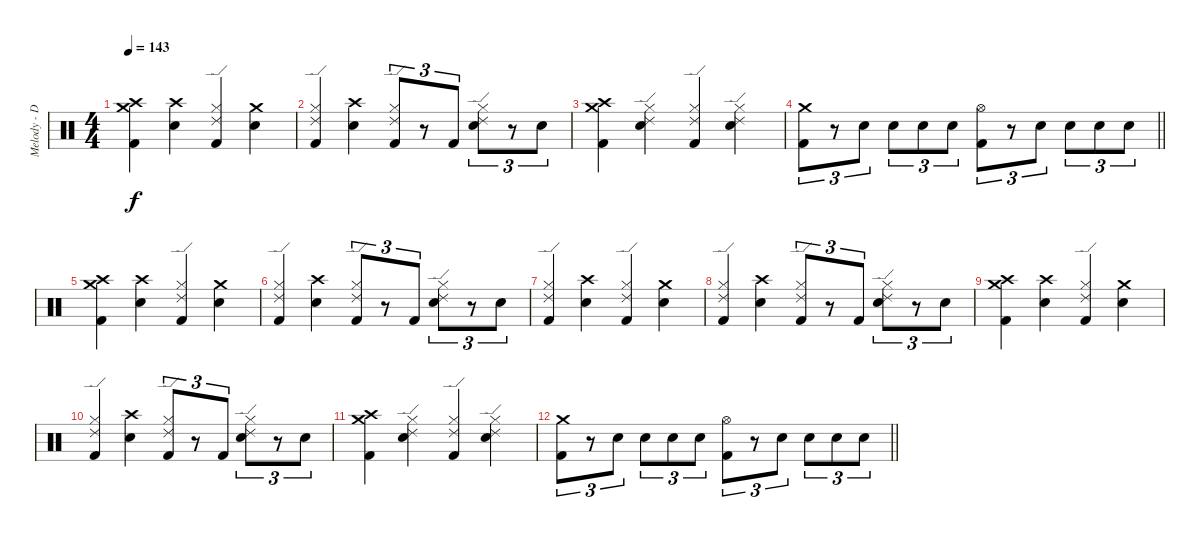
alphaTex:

\track ("Melody - Drums" "Melody - D") {instrument percussion}
\staff {score}
\articulation defaults
\ts (4 4)
\tempo 143
\clef neutral
\ks c
("Crash medium (hit)" "Crash high (hit)" "Kick (hit) 2").4{dy f} ("Crash high (hit)" "Electric Snare (hit)").4 ("Hi-Hat (closed)" "Ride (edge) 2" "Kick (hit) 2").4 ("Crash medium (hit)" "Electric Snare (hit)").4 |
("Hi-Hat (closed)" "Ride (edge) 2" "Kick (hit) 2").4 ("Crash high (hit)" "Electric Snare (hit)").4 ("Hi-Hat (closed)" "Ride (edge) 2" "Kick (hit) 2").8{tu (3 2)} r.8{tu (3 2)} "Kick (hit) 2".8{tu (3 2)} ("Hi-Hat (closed)" "Ride (edge) 2" "Electric Snare (hit)").8{tu (3 2)} r.8{tu (3 2)} "Electric Snare (hit)".8{tu (3 2)} |
("Crash medium (hit)" "Crash high (hit)" "Kick (hit) 2").4 ("Hi-Hat (closed)" "Ride (edge) 2" "Electric Snare (hit)").4 ("Hi-Hat (closed)" "Ride (edge) 2" "Kick (hit) 2").4 ("Hi-Hat (closed)" "Ride (edge) 2" "Electric Snare (hit)").4 |
\barLineRight lightlight
("Crash medium (hit)" "Kick (hit) 2").8{tu (3 2)} r.8{tu (3 2)} "Electric Snare (hit)".8{tu (3 2)} "Electric Snare (hit)".8{tu (3 2)} "Electric Snare (hit)".8{tu (3 2)} "Electric Snare (hit)".8{tu (3 2)} ("Hi-Hat (open)" "Kick (hit) 2").8{tu (3 2)} r.8{tu (3 2)} "Electric Snare (hit)".8{tu (3 2)} "Electric Snare (hit)".8{tu (3 2)} "Electric Snare (hit)".8{tu (3 2)} "Electric Snare (hit)".8{tu (3 2)} |
("Crash medium (hit)" "Crash high (hit)" "Kick (hit) 2").4 ("Crash high (hit)" "Electric Snare (hit)").4 ("Hi-Hat (closed)" "Ride (edge) 2" "Kick (hit) 2").4 ("Crash medium (hit)" "Electric Snare (hit)").4 |
("Hi-Hat (closed)" "Ride (edge) 2" "Kick (hit) 2").4 ("Crash high (hit)" "Electric Snare (hit)").4 ("Hi-Hat (closed)" "Ride (edge) 2" "Kick (hit) 2").8{tu (3 2)} r.8{tu (3 2)} "Kick (hit) 2".8{tu (3 2)} ("Hi-Hat (closed)" "Ride (edge) 2" "Electric Snare (hit)").8{tu (3 2)} r.8{tu (3 2)} "Electric Snare (hit)".8{tu (3 2)} |
("Hi-Hat (closed)" "Ride (edge) 2" "Kick (hit) 2").4{volume 0} ("Crash high (hit)" "Electric Snare (hit)").4 ("Hi-Hat (closed)" "Ride (edge) 2" "Kick (hit) 2").4 ("Crash medium (hit)" "Electric Snare (hit)").4 |
("Hi-Hat (closed)" "Ride (edge) 2" "Kick (hit) 2").4 ("Crash high (hit)" "Electric Snare (hit)").4 ("Hi-Hat (closed)" "Ride (edge) 2" "Kick (hit) 2").8{tu (3 2)} r.8{tu (3 2)} "Kick (hit) 2".8{tu (3 2)} ("Hi-Hat (closed)" "Ride (edge) 2" "Electric Snare (hit)").8{tu (3 2)} r.8{tu (3 2)} "Electric Snare (hit)".8{tu (3 2)} |
("Crash medium (hit)" "Crash high (hit)" "Kick (hit) 2").4 ("Crash high (hit)" "Electric Snare (hit)").4 ("Hi-Hat (closed)" "Ride (edge) 2" "Kick (hit) 2").4 ("Crash medium (hit)" "Electric Snare (hit)").4 |
("Hi-Hat (closed)" "Ride (edge) 2" "Kick (hit) 2").4 ("Crash high (hit)" "Electric Snare (hit)").4 ("Hi-Hat (closed)" "Ride (edge) 2" "Kick (hit) 2").8{tu (3 2)} r.8{tu (3 2)} "Kick (hit) 2".8{tu (3 2)} ("Hi-Hat (closed)" "Ride (edge) 2" "Electric Snare (hit)").8{tu (3 2)} r.8{tu (3 2)} "Electric Snare (hit)".8{tu (3 2)} |
("Crash medium (hit)" "Crash high (hit)" "Kick (hit) 2").4 ("Hi-Hat (closed)" "Ride (edge) 2" "Electric Snare (hit)").4 ("Hi-Hat (closed)" "Ride (edge) 2" "Kick (hit) 2").4 ("Hi-Hat (closed)" "Ride (edge) 2" "Electric Snare (hit)").4 |
\barLineRight lightlight
("Crash medium (hit)" "Kick (hit) 2").8{tu (3 2)} r.8{tu (3 2)} "Electric Snare (hit)".8{tu (3 2)} "Electric Snare (hit)".8{tu (3 2)} "Electric Snare (hit)".8{tu (3 2)} "Electric Snare (hit)".8{tu (3 2)} ("Hi-Hat (open)" "Kick (hit) 2").8{tu (3 2)} r.8{tu (3 2)} "Electric Snare (hit)".8{tu (3 2)} "Electric Snare (hit)".8{tu (3 2)} "Electric Snare (hit)".8{tu (3 2)} "Electric Snare (hit)".8{tu (3 2)}
